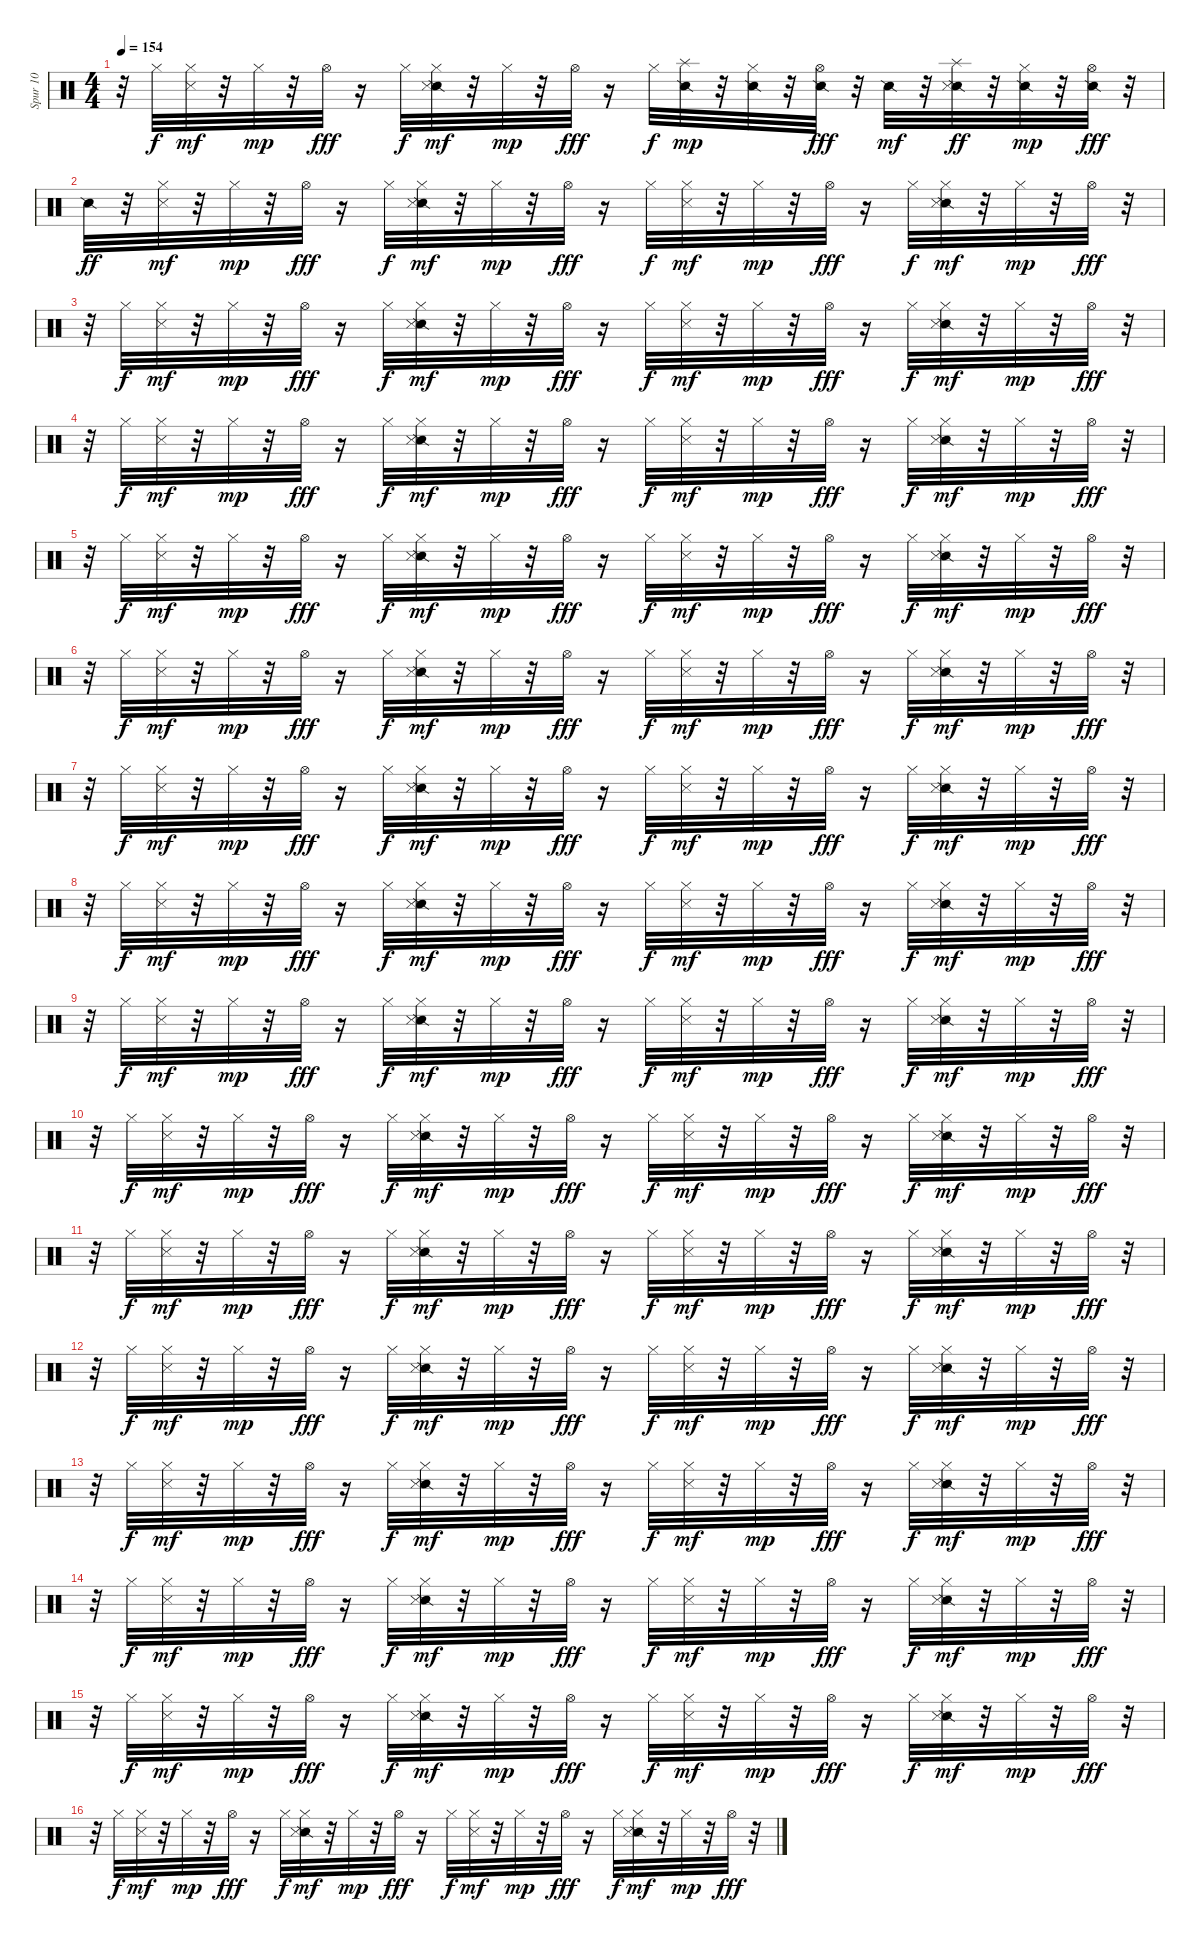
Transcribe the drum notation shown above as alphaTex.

\track ("Spur 10" "Spur 10") {instrument percussion}
\staff {score}
\articulation defaults
\ts (4 4)
\tempo 154
\clef neutral
\ks c
r.32{dy fff} "Hi-Hat (closed)".32{dy f} ("Metronome (hit)" "Hi-Hat (closed)").32{dy mf} r.32 "Hi-Hat (closed)".32{dy mp} r.32 "Hi-Hat (open)".32{dy fff} r.16 "Hi-Hat (closed)".32{dy f} ("Snare (side stick) 2" "Metronome (hit)" "Hi-Hat (closed)").32{dy mf} r.32 "Hi-Hat (closed)".32{dy mp} r.32 "Hi-Hat (open)".32{dy fff} r.16 "Hi-Hat (closed)".32{dy f} ("Snare (side stick) 2" "Splash (hit)").32{dy mp} r.32 ("Snare (side stick) 2" "Hi-Hat (closed)").32 r.32 ("Snare (side stick) 2" "Hi-Hat (open)").32{dy fff} r.32 "Snare (side stick) 2".32{dy mf} r.32 ("Snare (side stick) 2" "Metronome (hit)" "Splash (hit)").32{dy ff} r.32 ("Snare (side stick) 2" "Hi-Hat (closed)").32{dy mp} r.32 ("Snare (side stick) 2" "Hi-Hat (open)").32{dy fff} r.32 |
"Snare (side stick) 2".32{dy ff} r.32 ("Metronome (hit)" "Hi-Hat (closed)").32{dy mf} r.32 "Hi-Hat (closed)".32{dy mp} r.32 "Hi-Hat (open)".32{dy fff} r.16 "Hi-Hat (closed)".32{dy f} ("Snare (side stick) 2" "Metronome (hit)" "Hi-Hat (closed)").32{dy mf} r.32 "Hi-Hat (closed)".32{dy mp} r.32 "Hi-Hat (open)".32{dy fff} r.16 "Hi-Hat (closed)".32{dy f} ("Metronome (hit)" "Hi-Hat (closed)").32{dy mf} r.32 "Hi-Hat (closed)".32{dy mp} r.32 "Hi-Hat (open)".32{dy fff} r.16 "Hi-Hat (closed)".32{dy f} ("Snare (side stick) 2" "Metronome (hit)" "Hi-Hat (closed)").32{dy mf} r.32 "Hi-Hat (closed)".32{dy mp} r.32 "Hi-Hat (open)".32{dy fff} r.32 |
r.32 "Hi-Hat (closed)".32{dy f} ("Metronome (hit)" "Hi-Hat (closed)").32{dy mf} r.32 "Hi-Hat (closed)".32{dy mp} r.32 "Hi-Hat (open)".32{dy fff} r.16 "Hi-Hat (closed)".32{dy f} ("Snare (side stick) 2" "Metronome (hit)" "Hi-Hat (closed)").32{dy mf} r.32 "Hi-Hat (closed)".32{dy mp} r.32 "Hi-Hat (open)".32{dy fff} r.16 "Hi-Hat (closed)".32{dy f} ("Metronome (hit)" "Hi-Hat (closed)").32{dy mf} r.32 "Hi-Hat (closed)".32{dy mp} r.32 "Hi-Hat (open)".32{dy fff} r.16 "Hi-Hat (closed)".32{dy f} ("Snare (side stick) 2" "Metronome (hit)" "Hi-Hat (closed)").32{dy mf} r.32 "Hi-Hat (closed)".32{dy mp} r.32 "Hi-Hat (open)".32{dy fff} r.32 |
r.32 "Hi-Hat (closed)".32{dy f} ("Metronome (hit)" "Hi-Hat (closed)").32{dy mf} r.32 "Hi-Hat (closed)".32{dy mp} r.32 "Hi-Hat (open)".32{dy fff} r.16 "Hi-Hat (closed)".32{dy f} ("Snare (side stick) 2" "Metronome (hit)" "Hi-Hat (closed)").32{dy mf} r.32 "Hi-Hat (closed)".32{dy mp} r.32 "Hi-Hat (open)".32{dy fff} r.16 "Hi-Hat (closed)".32{dy f} ("Metronome (hit)" "Hi-Hat (closed)").32{dy mf} r.32 "Hi-Hat (closed)".32{dy mp} r.32 "Hi-Hat (open)".32{dy fff} r.16 "Hi-Hat (closed)".32{dy f} ("Snare (side stick) 2" "Metronome (hit)" "Hi-Hat (closed)").32{dy mf} r.32 "Hi-Hat (closed)".32{dy mp} r.32 "Hi-Hat (open)".32{dy fff} r.32 |
r.32 "Hi-Hat (closed)".32{dy f} ("Metronome (hit)" "Hi-Hat (closed)").32{dy mf} r.32 "Hi-Hat (closed)".32{dy mp} r.32 "Hi-Hat (open)".32{dy fff} r.16 "Hi-Hat (closed)".32{dy f} ("Snare (side stick) 2" "Metronome (hit)" "Hi-Hat (closed)").32{dy mf} r.32 "Hi-Hat (closed)".32{dy mp} r.32 "Hi-Hat (open)".32{dy fff} r.16 "Hi-Hat (closed)".32{dy f} ("Metronome (hit)" "Hi-Hat (closed)").32{dy mf} r.32 "Hi-Hat (closed)".32{dy mp} r.32 "Hi-Hat (open)".32{dy fff} r.16 "Hi-Hat (closed)".32{dy f} ("Snare (side stick) 2" "Metronome (hit)" "Hi-Hat (closed)").32{dy mf} r.32 "Hi-Hat (closed)".32{dy mp} r.32 "Hi-Hat (open)".32{dy fff} r.32 |
r.32 "Hi-Hat (closed)".32{dy f} ("Metronome (hit)" "Hi-Hat (closed)").32{dy mf} r.32 "Hi-Hat (closed)".32{dy mp} r.32 "Hi-Hat (open)".32{dy fff} r.16 "Hi-Hat (closed)".32{dy f} ("Snare (side stick) 2" "Metronome (hit)" "Hi-Hat (closed)").32{dy mf} r.32 "Hi-Hat (closed)".32{dy mp} r.32 "Hi-Hat (open)".32{dy fff} r.16 "Hi-Hat (closed)".32{dy f} ("Metronome (hit)" "Hi-Hat (closed)").32{dy mf} r.32 "Hi-Hat (closed)".32{dy mp} r.32 "Hi-Hat (open)".32{dy fff} r.16 "Hi-Hat (closed)".32{dy f} ("Snare (side stick) 2" "Metronome (hit)" "Hi-Hat (closed)").32{dy mf} r.32 "Hi-Hat (closed)".32{dy mp} r.32 "Hi-Hat (open)".32{dy fff} r.32 |
r.32 "Hi-Hat (closed)".32{dy f} ("Metronome (hit)" "Hi-Hat (closed)").32{dy mf} r.32 "Hi-Hat (closed)".32{dy mp} r.32 "Hi-Hat (open)".32{dy fff} r.16 "Hi-Hat (closed)".32{dy f} ("Snare (side stick) 2" "Metronome (hit)" "Hi-Hat (closed)").32{dy mf} r.32 "Hi-Hat (closed)".32{dy mp} r.32 "Hi-Hat (open)".32{dy fff} r.16 "Hi-Hat (closed)".32{dy f} ("Metronome (hit)" "Hi-Hat (closed)").32{dy mf} r.32 "Hi-Hat (closed)".32{dy mp} r.32 "Hi-Hat (open)".32{dy fff} r.16 "Hi-Hat (closed)".32{dy f} ("Snare (side stick) 2" "Metronome (hit)" "Hi-Hat (closed)").32{dy mf} r.32 "Hi-Hat (closed)".32{dy mp} r.32 "Hi-Hat (open)".32{dy fff} r.32 |
r.32 "Hi-Hat (closed)".32{dy f} ("Metronome (hit)" "Hi-Hat (closed)").32{dy mf} r.32 "Hi-Hat (closed)".32{dy mp} r.32 "Hi-Hat (open)".32{dy fff} r.16 "Hi-Hat (closed)".32{dy f} ("Snare (side stick) 2" "Metronome (hit)" "Hi-Hat (closed)").32{dy mf} r.32 "Hi-Hat (closed)".32{dy mp} r.32 "Hi-Hat (open)".32{dy fff} r.16 "Hi-Hat (closed)".32{dy f} ("Metronome (hit)" "Hi-Hat (closed)").32{dy mf} r.32 "Hi-Hat (closed)".32{dy mp} r.32 "Hi-Hat (open)".32{dy fff} r.16 "Hi-Hat (closed)".32{dy f} ("Snare (side stick) 2" "Metronome (hit)" "Hi-Hat (closed)").32{dy mf} r.32 "Hi-Hat (closed)".32{dy mp} r.32 "Hi-Hat (open)".32{dy fff} r.32 |
r.32 "Hi-Hat (closed)".32{dy f} ("Metronome (hit)" "Hi-Hat (closed)").32{dy mf} r.32 "Hi-Hat (closed)".32{dy mp} r.32 "Hi-Hat (open)".32{dy fff} r.16 "Hi-Hat (closed)".32{dy f} ("Snare (side stick) 2" "Metronome (hit)" "Hi-Hat (closed)").32{dy mf} r.32 "Hi-Hat (closed)".32{dy mp} r.32 "Hi-Hat (open)".32{dy fff} r.16 "Hi-Hat (closed)".32{dy f} ("Metronome (hit)" "Hi-Hat (closed)").32{dy mf} r.32 "Hi-Hat (closed)".32{dy mp} r.32 "Hi-Hat (open)".32{dy fff} r.16 "Hi-Hat (closed)".32{dy f} ("Snare (side stick) 2" "Metronome (hit)" "Hi-Hat (closed)").32{dy mf} r.32 "Hi-Hat (closed)".32{dy mp} r.32 "Hi-Hat (open)".32{dy fff} r.32 |
r.32 "Hi-Hat (closed)".32{dy f} ("Metronome (hit)" "Hi-Hat (closed)").32{dy mf} r.32 "Hi-Hat (closed)".32{dy mp} r.32 "Hi-Hat (open)".32{dy fff} r.16 "Hi-Hat (closed)".32{dy f} ("Snare (side stick) 2" "Metronome (hit)" "Hi-Hat (closed)").32{dy mf} r.32 "Hi-Hat (closed)".32{dy mp} r.32 "Hi-Hat (open)".32{dy fff} r.16 "Hi-Hat (closed)".32{dy f} ("Metronome (hit)" "Hi-Hat (closed)").32{dy mf} r.32 "Hi-Hat (closed)".32{dy mp} r.32 "Hi-Hat (open)".32{dy fff} r.16 "Hi-Hat (closed)".32{dy f} ("Snare (side stick) 2" "Metronome (hit)" "Hi-Hat (closed)").32{dy mf} r.32 "Hi-Hat (closed)".32{dy mp} r.32 "Hi-Hat (open)".32{dy fff} r.32 |
r.32 "Hi-Hat (closed)".32{dy f} ("Metronome (hit)" "Hi-Hat (closed)").32{dy mf} r.32 "Hi-Hat (closed)".32{dy mp} r.32 "Hi-Hat (open)".32{dy fff} r.16 "Hi-Hat (closed)".32{dy f} ("Snare (side stick) 2" "Metronome (hit)" "Hi-Hat (closed)").32{dy mf} r.32 "Hi-Hat (closed)".32{dy mp} r.32 "Hi-Hat (open)".32{dy fff} r.16 "Hi-Hat (closed)".32{dy f} ("Metronome (hit)" "Hi-Hat (closed)").32{dy mf} r.32 "Hi-Hat (closed)".32{dy mp} r.32 "Hi-Hat (open)".32{dy fff} r.16 "Hi-Hat (closed)".32{dy f} ("Snare (side stick) 2" "Metronome (hit)" "Hi-Hat (closed)").32{dy mf} r.32 "Hi-Hat (closed)".32{dy mp} r.32 "Hi-Hat (open)".32{dy fff} r.32 |
r.32 "Hi-Hat (closed)".32{dy f} ("Metronome (hit)" "Hi-Hat (closed)").32{dy mf} r.32 "Hi-Hat (closed)".32{dy mp} r.32 "Hi-Hat (open)".32{dy fff} r.16 "Hi-Hat (closed)".32{dy f} ("Snare (side stick) 2" "Metronome (hit)" "Hi-Hat (closed)").32{dy mf} r.32 "Hi-Hat (closed)".32{dy mp} r.32 "Hi-Hat (open)".32{dy fff} r.16 "Hi-Hat (closed)".32{dy f} ("Metronome (hit)" "Hi-Hat (closed)").32{dy mf} r.32 "Hi-Hat (closed)".32{dy mp} r.32 "Hi-Hat (open)".32{dy fff} r.16 "Hi-Hat (closed)".32{dy f} ("Snare (side stick) 2" "Metronome (hit)" "Hi-Hat (closed)").32{dy mf} r.32 "Hi-Hat (closed)".32{dy mp} r.32 "Hi-Hat (open)".32{dy fff} r.32 |
r.32 "Hi-Hat (closed)".32{dy f} ("Metronome (hit)" "Hi-Hat (closed)").32{dy mf} r.32 "Hi-Hat (closed)".32{dy mp} r.32 "Hi-Hat (open)".32{dy fff} r.16 "Hi-Hat (closed)".32{dy f} ("Snare (side stick) 2" "Metronome (hit)" "Hi-Hat (closed)").32{dy mf} r.32 "Hi-Hat (closed)".32{dy mp} r.32 "Hi-Hat (open)".32{dy fff} r.16 "Hi-Hat (closed)".32{dy f} ("Metronome (hit)" "Hi-Hat (closed)").32{dy mf} r.32 "Hi-Hat (closed)".32{dy mp} r.32 "Hi-Hat (open)".32{dy fff} r.16 "Hi-Hat (closed)".32{dy f} ("Snare (side stick) 2" "Metronome (hit)" "Hi-Hat (closed)").32{dy mf} r.32 "Hi-Hat (closed)".32{dy mp} r.32 "Hi-Hat (open)".32{dy fff} r.32 |
r.32 "Hi-Hat (closed)".32{dy f} ("Metronome (hit)" "Hi-Hat (closed)").32{dy mf} r.32 "Hi-Hat (closed)".32{dy mp} r.32 "Hi-Hat (open)".32{dy fff} r.16 "Hi-Hat (closed)".32{dy f} ("Snare (side stick) 2" "Metronome (hit)" "Hi-Hat (closed)").32{dy mf} r.32 "Hi-Hat (closed)".32{dy mp} r.32 "Hi-Hat (open)".32{dy fff} r.16 "Hi-Hat (closed)".32{dy f} ("Metronome (hit)" "Hi-Hat (closed)").32{dy mf} r.32 "Hi-Hat (closed)".32{dy mp} r.32 "Hi-Hat (open)".32{dy fff} r.16 "Hi-Hat (closed)".32{dy f} ("Snare (side stick) 2" "Metronome (hit)" "Hi-Hat (closed)").32{dy mf} r.32 "Hi-Hat (closed)".32{dy mp} r.32 "Hi-Hat (open)".32{dy fff} r.32 |
r.32 "Hi-Hat (closed)".32{dy f} ("Metronome (hit)" "Hi-Hat (closed)").32{dy mf} r.32 "Hi-Hat (closed)".32{dy mp} r.32 "Hi-Hat (open)".32{dy fff} r.16 "Hi-Hat (closed)".32{dy f} ("Snare (side stick) 2" "Metronome (hit)" "Hi-Hat (closed)").32{dy mf} r.32 "Hi-Hat (closed)".32{dy mp} r.32 "Hi-Hat (open)".32{dy fff} r.16 "Hi-Hat (closed)".32{dy f} ("Metronome (hit)" "Hi-Hat (closed)").32{dy mf} r.32 "Hi-Hat (closed)".32{dy mp} r.32 "Hi-Hat (open)".32{dy fff} r.16 "Hi-Hat (closed)".32{dy f} ("Snare (side stick) 2" "Metronome (hit)" "Hi-Hat (closed)").32{dy mf} r.32 "Hi-Hat (closed)".32{dy mp} r.32 "Hi-Hat (open)".32{dy fff} r.32 |
r.32 "Hi-Hat (closed)".32{dy f} ("Metronome (hit)" "Hi-Hat (closed)").32{dy mf} r.32 "Hi-Hat (closed)".32{dy mp} r.32 "Hi-Hat (open)".32{dy fff} r.16 "Hi-Hat (closed)".32{dy f} ("Snare (side stick) 2" "Metronome (hit)" "Hi-Hat (closed)").32{dy mf} r.32 "Hi-Hat (closed)".32{dy mp} r.32 "Hi-Hat (open)".32{dy fff} r.16 "Hi-Hat (closed)".32{dy f} ("Metronome (hit)" "Hi-Hat (closed)").32{dy mf} r.32 "Hi-Hat (closed)".32{dy mp} r.32 "Hi-Hat (open)".32{dy fff} r.16 "Hi-Hat (closed)".32{dy f} ("Snare (side stick) 2" "Metronome (hit)" "Hi-Hat (closed)").32{dy mf} r.32 "Hi-Hat (closed)".32{dy mp} r.32 "Hi-Hat (open)".32{dy fff} r.32
